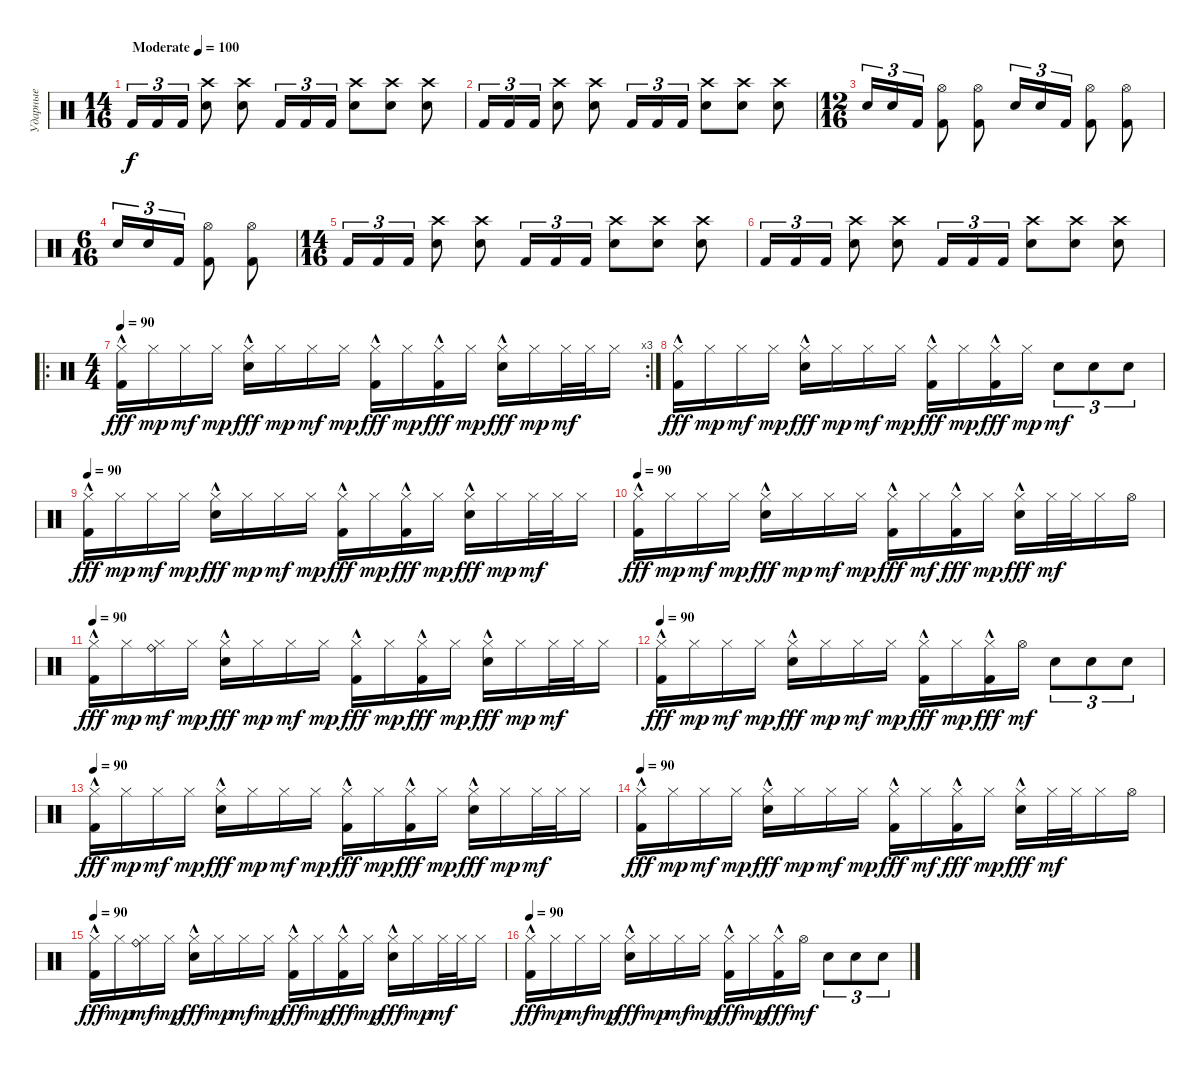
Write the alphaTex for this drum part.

\track ("Ударные" "Ударные") {instrument percussion}
\staff {score}
\articulation defaults
\ts (14 16)
\tempo (100 "Moderate")
\clef neutral
\ks c "Kick (hit) 2".16{tu (3 2) dy f} "Kick (hit) 2".16{tu (3 2)} "Kick (hit) 2".16{tu (3 2)}
("Electric Snare (hit)" "Crash high (hit)").8 ("Electric Snare (hit)" "Crash high (hit)").8 "Kick (hit) 2".16{tu (3 2)} "Kick (hit) 2".16{tu (3 2)} "Kick (hit) 2".16{tu (3 2)} ("Electric Snare (hit)" "Crash high (hit)").8 ("Electric Snare (hit)" "Crash high (hit)").8 ("Electric Snare (hit)" "Crash high (hit)").8 |
"Kick (hit) 2".16{tu (3 2)} "Kick (hit) 2".16{tu (3 2)} "Kick (hit) 2".16{tu (3 2)} ("Electric Snare (hit)" "Crash high (hit)").8 ("Electric Snare (hit)" "Crash high (hit)").8 "Kick (hit) 2".16{tu (3 2)} "Kick (hit) 2".16{tu (3 2)} "Kick (hit) 2".16{tu (3 2)} ("Electric Snare (hit)" "Crash high (hit)").8 ("Electric Snare (hit)" "Crash high (hit)").8 ("Electric Snare (hit)" "Crash high (hit)").8 |
\ts (12 16)
"Electric Snare (hit)".16{tu (3 2)} "Electric Snare (hit)".16{tu (3 2)} "Kick (hit) 2".16{tu (3 2)} ("Hi-Hat (open)" "Kick (hit) 2").8 ("Kick (hit) 2" "Hi-Hat (open)").8 "Electric Snare (hit)".16{tu (3 2)} "Electric Snare (hit)".16{tu (3 2)} "Kick (hit) 2".16{tu (3 2)} ("Hi-Hat (open)" "Kick (hit) 2").8 ("Hi-Hat (open)" "Kick (hit) 2").8 |
\ts (6 16)
"Electric Snare (hit)".16{tu (3 2)} "Electric Snare (hit)".16{tu (3 2)} "Kick (hit) 2".16{tu (3 2)} ("Hi-Hat (open)" "Kick (hit) 2").8 ("Kick (hit) 2" "Hi-Hat (open)").8 |
\ts (14 16)
"Kick (hit) 2".16{tu (3 2)} "Kick (hit) 2".16{tu (3 2)} "Kick (hit) 2".16{tu (3 2)} ("Electric Snare (hit)" "Crash high (hit)").8 ("Electric Snare (hit)" "Crash high (hit)").8 "Kick (hit) 2".16{tu (3 2)} "Kick (hit) 2".16{tu (3 2)} "Kick (hit) 2".16{tu (3 2)} ("Electric Snare (hit)" "Crash high (hit)").8 ("Electric Snare (hit)" "Crash high (hit)").8 ("Electric Snare (hit)" "Crash high (hit)").8 |
"Kick (hit) 2".16{tu (3 2)} "Kick (hit) 2".16{tu (3 2)} "Kick (hit) 2".16{tu (3 2)} ("Electric Snare (hit)" "Crash high (hit)").8 ("Electric Snare (hit)" "Crash high (hit)").8 "Kick (hit) 2".16{tu (3 2)} "Kick (hit) 2".16{tu (3 2)} "Kick (hit) 2".16{tu (3 2)} ("Electric Snare (hit)" "Crash high (hit)").8 ("Electric Snare (hit)" "Crash high (hit)").8 ("Electric Snare (hit)" "Crash high (hit)").8 |
\ro
\rc 3
\ts (4 4)
\tempo 90
("Hi-Hat (closed)" "Kick (hit) 2"{hac}).16{dy fff} "Hi-Hat (closed)".16{dy mp} "Hi-Hat (closed)".16{dy mf} "Hi-Hat (closed)".16{dy mp} ("Hi-Hat (closed)" "Electric Snare (hit)"{hac}).16{dy fff} "Hi-Hat (closed)".16{dy mp} "Hi-Hat (closed)".16{dy mf} "Hi-Hat (closed)".16{dy mp} ("Hi-Hat (closed)" "Kick (hit) 2"{hac}).16{dy fff} "Hi-Hat (closed)".16{dy mp} ("Hi-Hat (closed)" "Kick (hit) 2"{hac}).16{dy fff} "Hi-Hat (closed)".16{dy mp} ("Hi-Hat (closed)" "Electric Snare (hit)"{hac}).16{dy fff} "Hi-Hat (closed)".16{dy mp} "Hi-Hat (closed)".32{dy mf} "Hi-Hat (closed)".32 "Hi-Hat (closed)".16 |
("Hi-Hat (closed)" "Kick (hit) 2"{hac}).16{dy fff} "Hi-Hat (closed)".16{dy mp} "Hi-Hat (closed)".16{dy mf} "Hi-Hat (closed)".16{dy mp} ("Hi-Hat (closed)" "Electric Snare (hit)"{hac}).16{dy fff} "Hi-Hat (closed)".16{dy mp} "Hi-Hat (closed)".16{dy mf} "Hi-Hat (closed)".16{dy mp} ("Hi-Hat (closed)" "Kick (hit) 2"{hac}).16{dy fff} "Hi-Hat (closed)".16{dy mp} ("Hi-Hat (closed)" "Kick (hit) 2"{hac}).16{dy fff} "Hi-Hat (closed)".16{dy mp} "Electric Snare (hit)".8{tu (3 2) dy mf} "Electric Snare (hit)".8{tu (3 2)} "Electric Snare (hit)".8{tu (3 2)} |
\tempo 90
("Hi-Hat (closed)" "Kick (hit) 2"{hac}).16{dy fff} "Hi-Hat (closed)".16{dy mp} "Hi-Hat (closed)".16{dy mf} "Hi-Hat (closed)".16{dy mp} ("Hi-Hat (closed)" "Electric Snare (hit)"{hac}).16{dy fff} "Hi-Hat (closed)".16{dy mp} "Hi-Hat (closed)".16{dy mf} "Hi-Hat (closed)".16{dy mp} ("Hi-Hat (closed)" "Kick (hit) 2"{hac}).16{dy fff} "Hi-Hat (closed)".16{dy mp} ("Hi-Hat (closed)" "Kick (hit) 2"{hac}).16{dy fff} "Hi-Hat (closed)".16{dy mp} ("Hi-Hat (closed)" "Electric Snare (hit)"{hac}).16{dy fff} "Hi-Hat (closed)".16{dy mp} "Hi-Hat (closed)".32{dy mf} "Hi-Hat (closed)".32 "Hi-Hat (closed)".16 |
\tempo 90
("Hi-Hat (closed)" "Kick (hit) 2"{hac}).16{dy fff} "Hi-Hat (closed)".16{dy mp} "Hi-Hat (closed)".16{dy mf} "Hi-Hat (closed)".16{dy mp} ("Hi-Hat (closed)" "Electric Snare (hit)"{hac}).16{dy fff} "Hi-Hat (closed)".16{dy mp} "Hi-Hat (closed)".16{dy mf} "Hi-Hat (closed)".16{dy mp} ("Hi-Hat (closed)" "Kick (hit) 2"{hac}).16{dy fff} "Hi-Hat (closed)".16{dy mf} ("Hi-Hat (closed)" "Kick (hit) 2"{hac}).16{dy fff} "Hi-Hat (closed)".16{dy mp} ("Hi-Hat (closed)" "Electric Snare (hit)"{hac}).16{dy fff} "Hi-Hat (closed)".32{dy mf} "Hi-Hat (closed)".32 "Hi-Hat (closed)".16 "Hi-Hat (open)".16 |
\tempo 90
("Hi-Hat (closed)" "Kick (hit) 2"{hac}).16{dy fff} "Hi-Hat (closed)".16{dy mp} ("Hi-Hat (closed)" "Ride (bell)").16{dy mf} "Hi-Hat (closed)".16{dy mp} ("Hi-Hat (closed)" "Electric Snare (hit)"{hac}).16{dy fff} "Hi-Hat (closed)".16{dy mp} "Hi-Hat (closed)".16{dy mf} "Hi-Hat (closed)".16{dy mp} ("Hi-Hat (closed)" "Kick (hit) 2"{hac}).16{dy fff} "Hi-Hat (closed)".16{dy mp} ("Hi-Hat (closed)" "Kick (hit) 2"{hac}).16{dy fff} "Hi-Hat (closed)".16{dy mp} ("Hi-Hat (closed)" "Electric Snare (hit)"{hac}).16{dy fff} "Hi-Hat (closed)".16{dy mp} "Hi-Hat (closed)".32{dy mf} "Hi-Hat (closed)".32 "Hi-Hat (closed)".16 |
\tempo 90
("Hi-Hat (closed)" "Kick (hit) 2"{hac}).16{dy fff} "Hi-Hat (closed)".16{dy mp} "Hi-Hat (closed)".16{dy mf} "Hi-Hat (closed)".16{dy mp} ("Hi-Hat (closed)" "Electric Snare (hit)"{hac}).16{dy fff} "Hi-Hat (closed)".16{dy mp} "Hi-Hat (closed)".16{dy mf} "Hi-Hat (closed)".16{dy mp} ("Hi-Hat (closed)" "Kick (hit) 2"{hac}).16{dy fff} "Hi-Hat (closed)".16{dy mp} ("Hi-Hat (closed)" "Kick (hit) 2"{hac}).16{dy fff} "Hi-Hat (open)".16{dy mf} "Electric Snare (hit)".8{tu (3 2)} "Electric Snare (hit)".8{tu (3 2)} "Electric Snare (hit)".8{tu (3 2)} |
\tempo 90
("Hi-Hat (closed)" "Kick (hit) 2"{hac}).16{dy fff} "Hi-Hat (closed)".16{dy mp} "Hi-Hat (closed)".16{dy mf} "Hi-Hat (closed)".16{dy mp} ("Hi-Hat (closed)" "Electric Snare (hit)"{hac}).16{dy fff} "Hi-Hat (closed)".16{dy mp} "Hi-Hat (closed)".16{dy mf} "Hi-Hat (closed)".16{dy mp} ("Hi-Hat (closed)" "Kick (hit) 2"{hac}).16{dy fff} "Hi-Hat (closed)".16{dy mp} ("Hi-Hat (closed)" "Kick (hit) 2"{hac}).16{dy fff} "Hi-Hat (closed)".16{dy mp} ("Hi-Hat (closed)" "Electric Snare (hit)"{hac}).16{dy fff} "Hi-Hat (closed)".16{dy mp} "Hi-Hat (closed)".32{dy mf} "Hi-Hat (closed)".32 "Hi-Hat (closed)".16 |
\tempo 90
("Hi-Hat (closed)" "Kick (hit) 2"{hac}).16{dy fff} "Hi-Hat (closed)".16{dy mp} "Hi-Hat (closed)".16{dy mf} "Hi-Hat (closed)".16{dy mp} ("Hi-Hat (closed)" "Electric Snare (hit)"{hac}).16{dy fff} "Hi-Hat (closed)".16{dy mp} "Hi-Hat (closed)".16{dy mf} "Hi-Hat (closed)".16{dy mp} ("Hi-Hat (closed)" "Kick (hit) 2"{hac}).16{dy fff} "Hi-Hat (closed)".16{dy mf} ("Hi-Hat (closed)" "Kick (hit) 2"{hac}).16{dy fff} "Hi-Hat (closed)".16{dy mp} ("Hi-Hat (closed)" "Electric Snare (hit)"{hac}).16{dy fff} "Hi-Hat (closed)".32{dy mf} "Hi-Hat (closed)".32 "Hi-Hat (closed)".16 "Hi-Hat (open)".16 |
\tempo 90
("Hi-Hat (closed)" "Kick (hit) 2"{hac}).16{dy fff} "Hi-Hat (closed)".16{dy mp} ("Hi-Hat (closed)" "Ride (bell)").16{dy mf} "Hi-Hat (closed)".16{dy mp} ("Hi-Hat (closed)" "Electric Snare (hit)"{hac}).16{dy fff} "Hi-Hat (closed)".16{dy mp} "Hi-Hat (closed)".16{dy mf} "Hi-Hat (closed)".16{dy mp} ("Hi-Hat (closed)" "Kick (hit) 2"{hac}).16{dy fff} "Hi-Hat (closed)".16{dy mp} ("Hi-Hat (closed)" "Kick (hit) 2"{hac}).16{dy fff} "Hi-Hat (closed)".16{dy mp} ("Hi-Hat (closed)" "Electric Snare (hit)"{hac}).16{dy fff} "Hi-Hat (closed)".16{dy mp} "Hi-Hat (closed)".32{dy mf} "Hi-Hat (closed)".32 "Hi-Hat (closed)".16 |
\tempo 90
("Hi-Hat (closed)" "Kick (hit) 2"{hac}).16{dy fff} "Hi-Hat (closed)".16{dy mp} "Hi-Hat (closed)".16{dy mf} "Hi-Hat (closed)".16{dy mp} ("Hi-Hat (closed)" "Electric Snare (hit)"{hac}).16{dy fff} "Hi-Hat (closed)".16{dy mp} "Hi-Hat (closed)".16{dy mf} "Hi-Hat (closed)".16{dy mp} ("Hi-Hat (closed)" "Kick (hit) 2"{hac}).16{dy fff} "Hi-Hat (closed)".16{dy mp} ("Hi-Hat (closed)" "Kick (hit) 2"{hac}).16{dy fff} "Hi-Hat (open)".16{dy mf} "Electric Snare (hit)".8{tu (3 2)} "Electric Snare (hit)".8{tu (3 2)} "Electric Snare (hit)".8{tu (3 2)}
